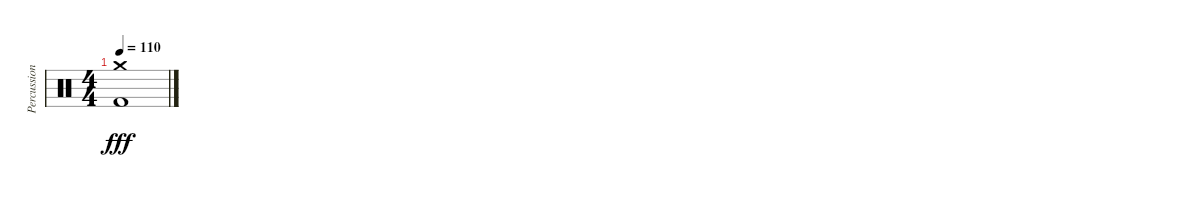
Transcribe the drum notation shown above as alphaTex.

\track ("Percussion" "Percussion") {instrument percussion}
\staff {score}
\articulation defaults
\ts (4 4)
\tempo 110
\clef neutral
\ks c
("Crash medium (hit)" "Kick (hit) 2").1{dy fff}
